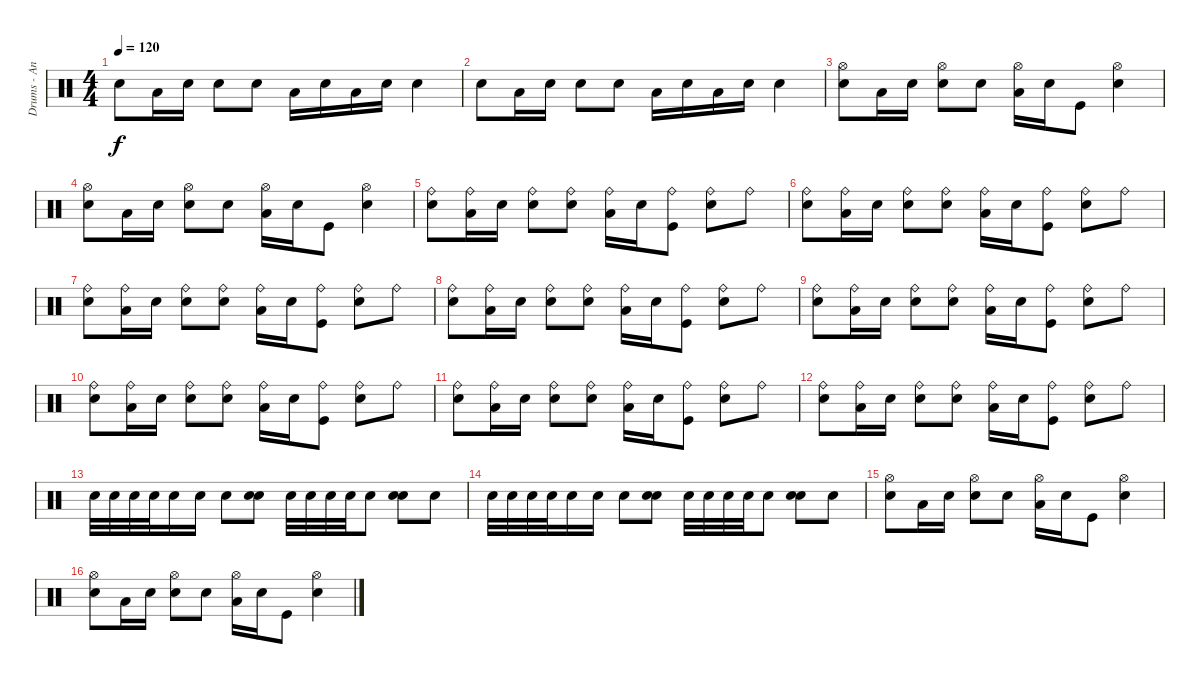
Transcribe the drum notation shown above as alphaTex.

\track ("Drums - Andrew" "Drums - An") {instrument percussion}
\staff {score}
\articulation defaults
\ts (4 4)
\tempo 120
\clef neutral
\ks c "Electric Snare (hit)".8{dy f} "Low Tom (hit)".16 "Electric Snare (hit)".16 "Electric Snare (hit)".8 "Electric Snare (hit)".8 "Low Tom (hit)".16 "Electric Snare (hit)".16 "Low Tom (hit)".16 "Electric Snare (hit)".16 "Electric Snare (hit)".4
|
"Electric Snare (hit)".8 "Low Tom (hit)".16 "Electric Snare (hit)".16 "Electric Snare (hit)".8 "Electric Snare (hit)".8 "Low Tom (hit)".16 "Electric Snare (hit)".16 "Low Tom (hit)".16 "Electric Snare (hit)".16 "Electric Snare (hit)".4 |
("Hi-Hat (open)" "Electric Snare (hit)").8 "Low Tom (hit)".16 "Electric Snare (hit)".16 ("Hi-Hat (open)" "Electric Snare (hit)").8 "Electric Snare (hit)".8 ("Hi-Hat (open)" "Low Tom (hit)").16 "Electric Snare (hit)".16 "Kick (hit)".8 ("Hi-Hat (open)" "Electric Snare (hit)").4 |
("Hi-Hat (open)" "Electric Snare (hit)").8 "Low Tom (hit)".16 "Electric Snare (hit)".16 ("Hi-Hat (open)" "Electric Snare (hit)").8 "Electric Snare (hit)".8 ("Hi-Hat (open)" "Low Tom (hit)").16 "Electric Snare (hit)".16 "Kick (hit)".8 ("Hi-Hat (open)" "Electric Snare (hit)").4 |
("Ride (bell)" "Electric Snare (hit)").8 ("Ride (bell)" "Low Tom (hit)").16 "Electric Snare (hit)".16 ("Ride (bell)" "Electric Snare (hit)").8 ("Ride (bell)" "Electric Snare (hit)").8 ("Ride (bell)" "Low Tom (hit)").16 "Electric Snare (hit)".16 ("Ride (bell)" "Kick (hit)").8 ("Ride (bell)" "Electric Snare (hit)").8 "Ride (bell)".8 |
("Ride (bell)" "Electric Snare (hit)").8 ("Ride (bell)" "Low Tom (hit)").16 "Electric Snare (hit)".16 ("Ride (bell)" "Electric Snare (hit)").8 ("Ride (bell)" "Electric Snare (hit)").8 ("Ride (bell)" "Low Tom (hit)").16 "Electric Snare (hit)".16 ("Ride (bell)" "Kick (hit)").8 ("Ride (bell)" "Electric Snare (hit)").8 "Ride (bell)".8 |
("Ride (bell)" "Electric Snare (hit)").8 ("Ride (bell)" "Low Tom (hit)").16 "Electric Snare (hit)".16 ("Ride (bell)" "Electric Snare (hit)").8 ("Ride (bell)" "Electric Snare (hit)").8 ("Ride (bell)" "Low Tom (hit)").16 "Electric Snare (hit)".16 ("Ride (bell)" "Kick (hit)").8 ("Ride (bell)" "Electric Snare (hit)").8 "Ride (bell)".8 |
("Ride (bell)" "Electric Snare (hit)").8 ("Ride (bell)" "Low Tom (hit)").16 "Electric Snare (hit)".16 ("Ride (bell)" "Electric Snare (hit)").8 ("Ride (bell)" "Electric Snare (hit)").8 ("Ride (bell)" "Low Tom (hit)").16 "Electric Snare (hit)".16 ("Ride (bell)" "Kick (hit)").8 ("Ride (bell)" "Electric Snare (hit)").8 "Ride (bell)".8 |
("Ride (bell)" "Electric Snare (hit)").8 ("Ride (bell)" "Low Tom (hit)").16 "Electric Snare (hit)".16 ("Ride (bell)" "Electric Snare (hit)").8 ("Ride (bell)" "Electric Snare (hit)").8 ("Ride (bell)" "Low Tom (hit)").16 "Electric Snare (hit)".16 ("Ride (bell)" "Kick (hit)").8 ("Ride (bell)" "Electric Snare (hit)").8 "Ride (bell)".8 |
("Ride (bell)" "Electric Snare (hit)").8 ("Ride (bell)" "Low Tom (hit)").16 "Electric Snare (hit)".16 ("Ride (bell)" "Electric Snare (hit)").8 ("Ride (bell)" "Electric Snare (hit)").8 ("Ride (bell)" "Low Tom (hit)").16 "Electric Snare (hit)".16 ("Ride (bell)" "Kick (hit)").8 ("Ride (bell)" "Electric Snare (hit)").8 "Ride (bell)".8 |
("Ride (bell)" "Electric Snare (hit)").8 ("Ride (bell)" "Low Tom (hit)").16 "Electric Snare (hit)".16 ("Ride (bell)" "Electric Snare (hit)").8 ("Ride (bell)" "Electric Snare (hit)").8 ("Ride (bell)" "Low Tom (hit)").16 "Electric Snare (hit)".16 ("Ride (bell)" "Kick (hit)").8 ("Ride (bell)" "Electric Snare (hit)").8 "Ride (bell)".8 |
("Ride (bell)" "Electric Snare (hit)").8 ("Ride (bell)" "Low Tom (hit)").16 "Electric Snare (hit)".16 ("Ride (bell)" "Electric Snare (hit)").8 ("Ride (bell)" "Electric Snare (hit)").8 ("Ride (bell)" "Low Tom (hit)").16 "Electric Snare (hit)".16 ("Ride (bell)" "Kick (hit)").8 ("Ride (bell)" "Electric Snare (hit)").8 "Ride (bell)".8 |
"Electric Snare (hit)".32 "Electric Snare (hit)".32 "Electric Snare (hit)".32 "Electric Snare (hit)".32 "Electric Snare (hit)".16 "Electric Snare (hit)".16 "Electric Snare (hit)".8 ("Electric Snare (hit)" "Electric Snare (hit)").8 "Electric Snare (hit)".32 "Electric Snare (hit)".32 "Electric Snare (hit)".32 "Electric Snare (hit)".32 "Electric Snare (hit)".8 ("Electric Snare (hit)" "Electric Snare (hit)").8 "Electric Snare (hit)".8 |
"Electric Snare (hit)".32 "Electric Snare (hit)".32 "Electric Snare (hit)".32 "Electric Snare (hit)".32 "Electric Snare (hit)".16 "Electric Snare (hit)".16 "Electric Snare (hit)".8 ("Electric Snare (hit)" "Electric Snare (hit)").8 "Electric Snare (hit)".32 "Electric Snare (hit)".32 "Electric Snare (hit)".32 "Electric Snare (hit)".32 "Electric Snare (hit)".8 ("Electric Snare (hit)" "Electric Snare (hit)").8 "Electric Snare (hit)".8 |
("Hi-Hat (open)" "Electric Snare (hit)").8 "Low Tom (hit)".16 "Electric Snare (hit)".16 ("Hi-Hat (open)" "Electric Snare (hit)").8 "Electric Snare (hit)".8 ("Hi-Hat (open)" "Low Tom (hit)").16 "Electric Snare (hit)".16 "Kick (hit)".8 ("Hi-Hat (open)" "Electric Snare (hit)").4 |
("Hi-Hat (open)" "Electric Snare (hit)").8 "Low Tom (hit)".16 "Electric Snare (hit)".16 ("Hi-Hat (open)" "Electric Snare (hit)").8 "Electric Snare (hit)".8 ("Hi-Hat (open)" "Low Tom (hit)").16 "Electric Snare (hit)".16 "Kick (hit)".8 ("Hi-Hat (open)" "Electric Snare (hit)").4
